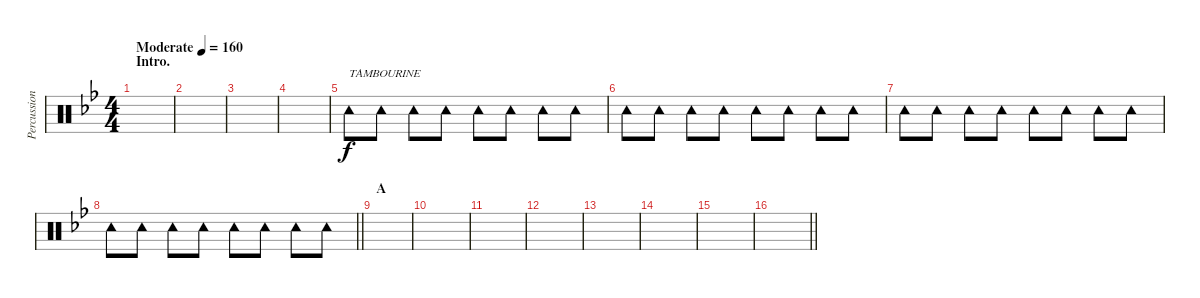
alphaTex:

\track ("Percussion (Tainaka Ritsu)" "Percussion") {instrument percussion}
\staff {score}
\articulation defaults
\ts (4 4)
\section ("" "Intro.")
\tempo (160 "Moderate")
\clef neutral
\ks bb
|
|
|
|
"Tambourine (hit)".8{txt "TAMBOURINE"} "Tambourine (hit)".8 "Tambourine (hit)".8 "Tambourine (hit)".8 "Tambourine (hit)".8 "Tambourine (hit)".8 "Tambourine (hit)".8 "Tambourine (hit)".8 |
"Tambourine (hit)".8 "Tambourine (hit)".8 "Tambourine (hit)".8 "Tambourine (hit)".8 "Tambourine (hit)".8 "Tambourine (hit)".8 "Tambourine (hit)".8 "Tambourine (hit)".8 |
"Tambourine (hit)".8 "Tambourine (hit)".8 "Tambourine (hit)".8 "Tambourine (hit)".8 "Tambourine (hit)".8 "Tambourine (hit)".8 "Tambourine (hit)".8 "Tambourine (hit)".8 |
\barLineRight lightlight "Tambourine (hit)".8 "Tambourine (hit)".8 "Tambourine (hit)".8 "Tambourine (hit)".8 "Tambourine (hit)".8 "Tambourine (hit)".8 "Tambourine (hit)".8 "Tambourine (hit)".8
|
\section ("" "A")
|
|
|
|
|
|
|
\barLineRight lightlight
